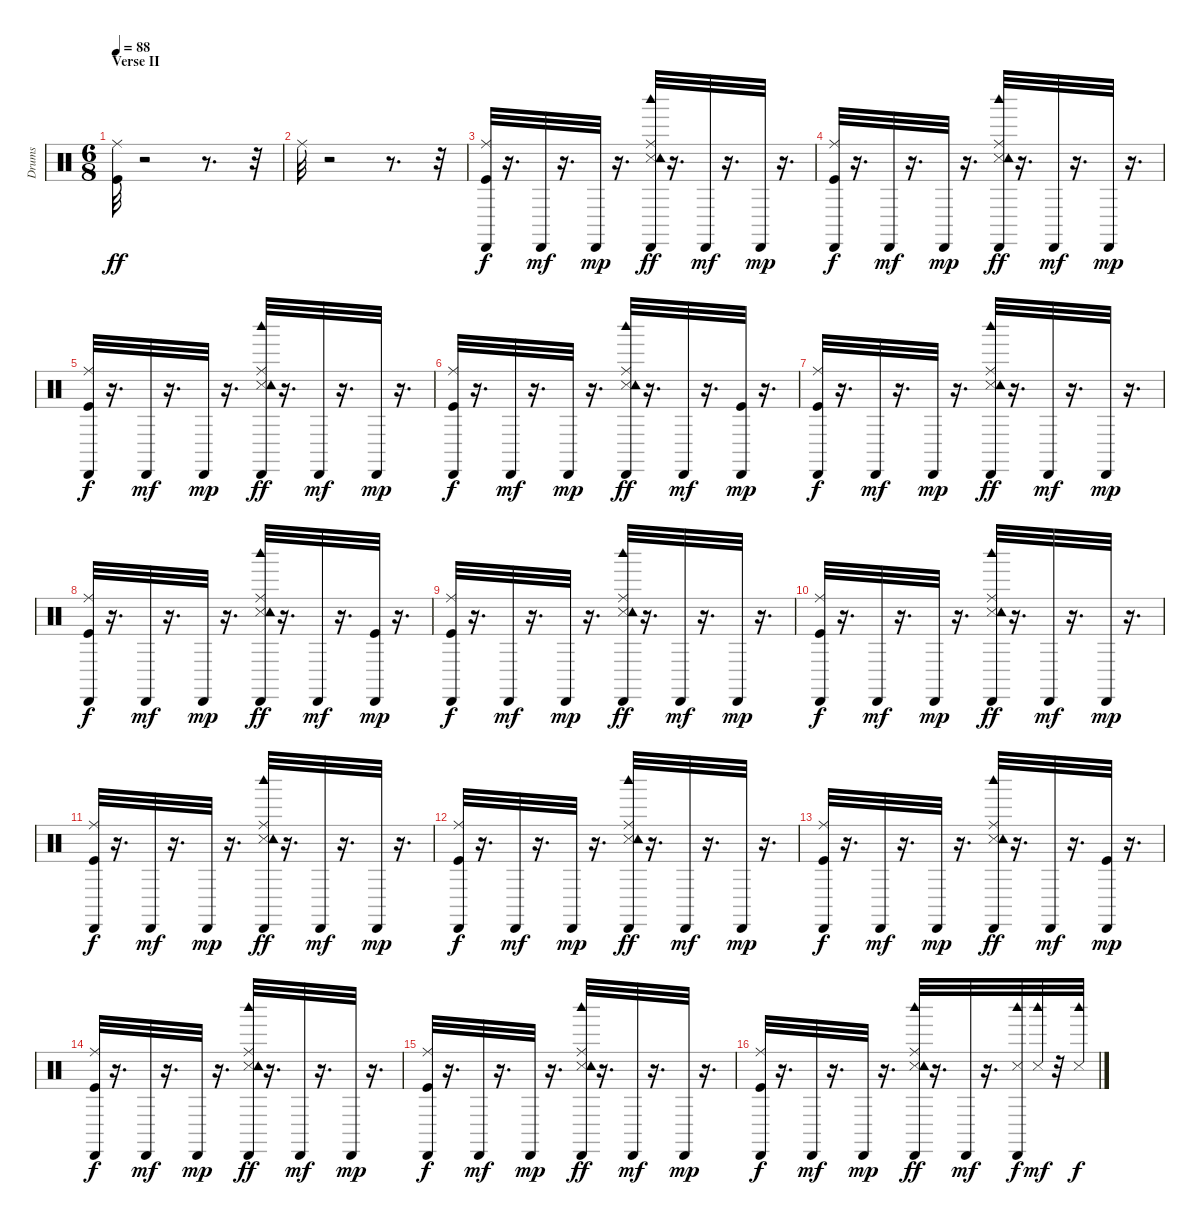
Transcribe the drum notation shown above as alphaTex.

\track ("Drums               " "Drums     ") {instrument percussion}
\staff {score}
\articulation defaults
\ts (6 8)
\section ("" "Verse II")
\tempo 88
\clef neutral
\ks c
("Kick (hit)" "Ride (middle)").32{dy ff} r.2 r.8{d} r.32 |
"Ride (middle)".32 r.2 r.8{d} r.32 |
("Kick (hit)" "Ride (middle)" "Cabasa (hit)").32{dy f} r.16{d} "Cabasa (hit)".32{dy mf} r.16{d} "Cabasa (hit)".32{dy mp} r.16{d} ("Snare (side stick) 3" "Ride (middle)" "Tambourine (hit)" "Cabasa (hit)" "Woodblock high (hit)").32{dy ff} r.16{d} "Cabasa (hit)".32{dy mf} r.16{d} "Cabasa (hit)".32{dy mp} r.16{d} |
("Kick (hit)" "Ride (middle)" "Cabasa (hit)").32{dy f} r.16{d} "Cabasa (hit)".32{dy mf} r.16{d} "Cabasa (hit)".32{dy mp} r.16{d} ("Snare (side stick) 3" "Ride (middle)" "Tambourine (hit)" "Cabasa (hit)" "Woodblock high (hit)").32{dy ff} r.16{d} "Cabasa (hit)".32{dy mf} r.16{d} "Cabasa (hit)".32{dy mp} r.16{d} |
("Kick (hit)" "Ride (middle)" "Cabasa (hit)").32{dy f} r.16{d} "Cabasa (hit)".32{dy mf} r.16{d} "Cabasa (hit)".32{dy mp} r.16{d} ("Snare (side stick) 3" "Ride (middle)" "Tambourine (hit)" "Cabasa (hit)" "Woodblock high (hit)").32{dy ff} r.16{d} "Cabasa (hit)".32{dy mf} r.16{d} "Cabasa (hit)".32{dy mp} r.16{d} |
("Kick (hit)" "Ride (middle)" "Cabasa (hit)").32{dy f} r.16{d} "Cabasa (hit)".32{dy mf} r.16{d} "Cabasa (hit)".32{dy mp} r.16{d} ("Snare (side stick) 3" "Ride (middle)" "Tambourine (hit)" "Cabasa (hit)" "Woodblock high (hit)").32{dy ff} r.16{d} "Cabasa (hit)".32{dy mf} r.16{d} ("Kick (hit)" "Cabasa (hit)").32{dy mp} r.16{d} |
("Kick (hit)" "Ride (middle)" "Cabasa (hit)").32{dy f} r.16{d} "Cabasa (hit)".32{dy mf} r.16{d} "Cabasa (hit)".32{dy mp} r.16{d} ("Snare (side stick) 3" "Ride (middle)" "Tambourine (hit)" "Cabasa (hit)" "Woodblock high (hit)").32{dy ff} r.16{d} "Cabasa (hit)".32{dy mf} r.16{d} "Cabasa (hit)".32{dy mp} r.16{d} |
("Kick (hit)" "Ride (middle)" "Cabasa (hit)").32{dy f} r.16{d} "Cabasa (hit)".32{dy mf} r.16{d} "Cabasa (hit)".32{dy mp} r.16{d} ("Snare (side stick) 3" "Ride (middle)" "Tambourine (hit)" "Cabasa (hit)" "Woodblock high (hit)").32{dy ff} r.16{d} "Cabasa (hit)".32{dy mf} r.16{d} ("Kick (hit)" "Cabasa (hit)").32{dy mp} r.16{d} |
("Kick (hit)" "Ride (middle)" "Cabasa (hit)").32{dy f} r.16{d} "Cabasa (hit)".32{dy mf} r.16{d} "Cabasa (hit)".32{dy mp} r.16{d} ("Snare (side stick) 3" "Ride (middle)" "Tambourine (hit)" "Cabasa (hit)" "Woodblock high (hit)").32{dy ff} r.16{d} "Cabasa (hit)".32{dy mf} r.16{d} "Cabasa (hit)".32{dy mp} r.16{d} |
("Kick (hit)" "Ride (middle)" "Cabasa (hit)").32{dy f} r.16{d} "Cabasa (hit)".32{dy mf} r.16{d} "Cabasa (hit)".32{dy mp} r.16{d} ("Snare (side stick) 3" "Ride (middle)" "Tambourine (hit)" "Cabasa (hit)" "Woodblock high (hit)").32{dy ff} r.16{d} "Cabasa (hit)".32{dy mf} r.16{d} "Cabasa (hit)".32{dy mp} r.16{d} |
("Kick (hit)" "Ride (middle)" "Cabasa (hit)").32{dy f} r.16{d} "Cabasa (hit)".32{dy mf} r.16{d} "Cabasa (hit)".32{dy mp} r.16{d} ("Snare (side stick) 3" "Ride (middle)" "Tambourine (hit)" "Cabasa (hit)" "Woodblock high (hit)").32{dy ff} r.16{d} "Cabasa (hit)".32{dy mf} r.16{d} "Cabasa (hit)".32{dy mp} r.16{d} |
("Kick (hit)" "Ride (middle)" "Cabasa (hit)").32{dy f} r.16{d} "Cabasa (hit)".32{dy mf} r.16{d} "Cabasa (hit)".32{dy mp} r.16{d} ("Snare (side stick) 3" "Ride (middle)" "Tambourine (hit)" "Cabasa (hit)" "Woodblock high (hit)").32{dy ff} r.16{d} "Cabasa (hit)".32{dy mf} r.16{d} "Cabasa (hit)".32{dy mp} r.16{d} |
("Kick (hit)" "Ride (middle)" "Cabasa (hit)").32{dy f} r.16{d} "Cabasa (hit)".32{dy mf} r.16{d} "Cabasa (hit)".32{dy mp} r.16{d} ("Snare (side stick) 3" "Ride (middle)" "Tambourine (hit)" "Cabasa (hit)" "Woodblock high (hit)").32{dy ff} r.16{d} "Cabasa (hit)".32{dy mf} r.16{d} ("Kick (hit)" "Cabasa (hit)").32{dy mp} r.16{d} |
("Kick (hit)" "Ride (middle)" "Cabasa (hit)").32{dy f} r.16{d} "Cabasa (hit)".32{dy mf} r.16{d} "Cabasa (hit)".32{dy mp} r.16{d} ("Snare (side stick) 3" "Ride (middle)" "Tambourine (hit)" "Cabasa (hit)" "Woodblock high (hit)").32{dy ff} r.16{d} "Cabasa (hit)".32{dy mf} r.16{d} "Cabasa (hit)".32{dy mp} r.16{d} |
("Kick (hit)" "Ride (middle)" "Cabasa (hit)").32{dy f} r.16{d} "Cabasa (hit)".32{dy mf} r.16{d} "Cabasa (hit)".32{dy mp} r.16{d} ("Snare (side stick) 3" "Ride (middle)" "Tambourine (hit)" "Cabasa (hit)" "Woodblock high (hit)").32{dy ff} r.16{d} "Cabasa (hit)".32{dy mf} r.16{d} "Cabasa (hit)".32{dy mp} r.16{d} |
("Kick (hit)" "Ride (middle)" "Cabasa (hit)").32{dy f} r.16{d} "Cabasa (hit)".32{dy mf} r.16{d} "Cabasa (hit)".32{dy mp} r.16{d} ("Snare (side stick) 3" "Ride (middle)" "Tambourine (hit)" "Cabasa (hit)" "Woodblock high (hit)").32{dy ff} r.16{d} "Cabasa (hit)".32{dy mf} r.16{d} ("Snare (side stick) 3" "Cabasa (hit)" "Woodblock high (hit)").32{dy f} ("Snare (side stick) 3" "Woodblock high (hit)").32{dy mf} r.32 ("Snare (side stick) 3" "Woodblock high (hit)").32{dy f}
